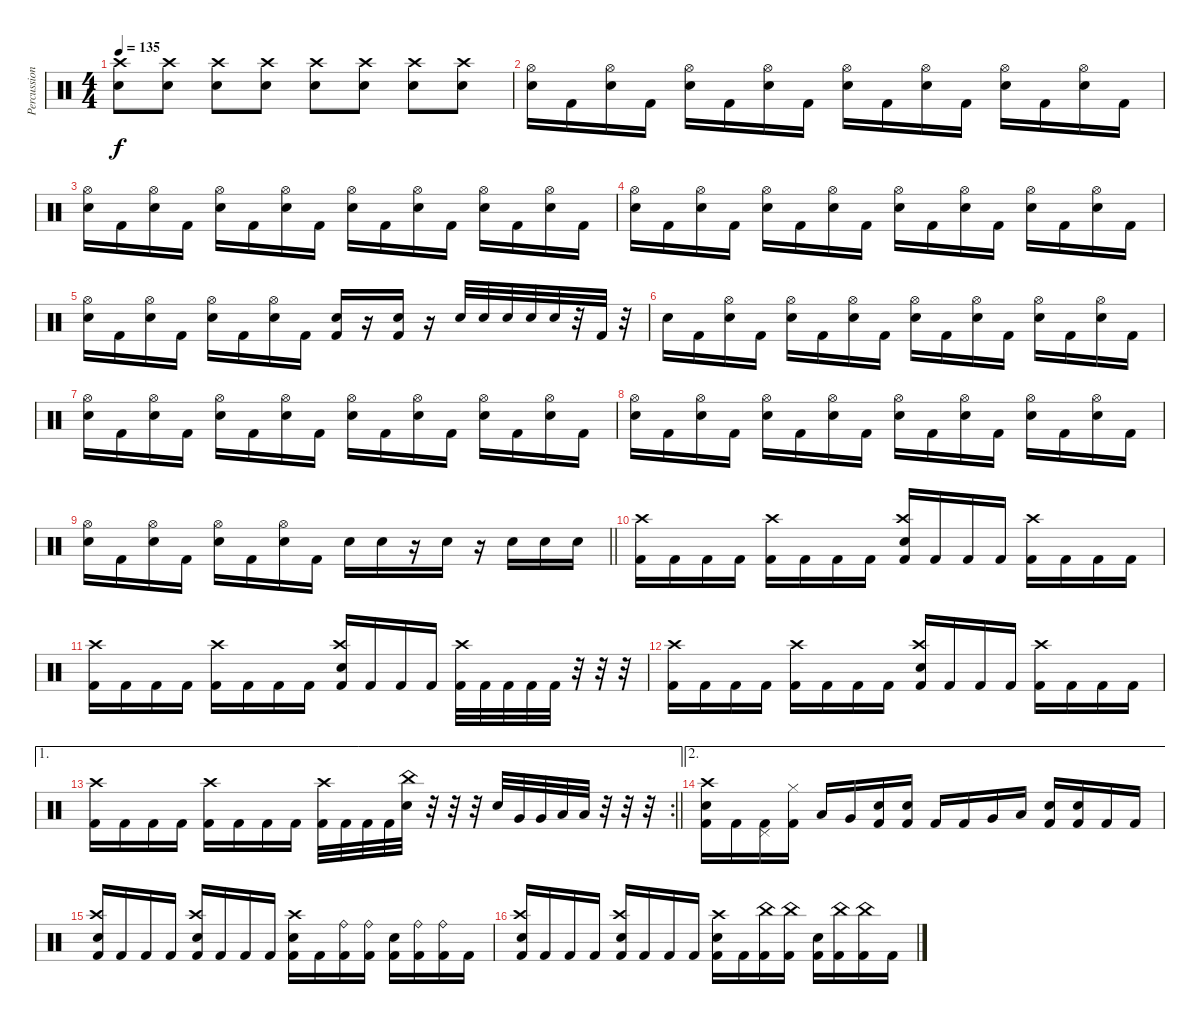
\track ("Percussion" "Percussion") {instrument percussion}
\staff {score}
\articulation defaults
\ts (4 4)
\tempo 135
\clef neutral
\ks c
("Electric Snare (hit)" "Crash high (hit)").8{dy f} ("Electric Snare (hit)" "Crash high (hit)").8 ("Electric Snare (hit)" "Crash high (hit)").8 ("Electric Snare (hit)" "Crash high (hit)").8 ("Electric Snare (hit)" "Crash high (hit)").8 ("Electric Snare (hit)" "Crash high (hit)").8 ("Electric Snare (hit)" "Crash high (hit)").8 ("Electric Snare (hit)" "Crash high (hit)").8 |
("Electric Snare (hit)" "Hi-Hat (open)").16 "Kick (hit) 2".16 ("Electric Snare (hit)" "Hi-Hat (open)").16 "Kick (hit) 2".16 ("Electric Snare (hit)" "Hi-Hat (open)").16 "Kick (hit) 2".16 ("Electric Snare (hit)" "Hi-Hat (open)").16 "Kick (hit) 2".16 ("Electric Snare (hit)" "Hi-Hat (open)").16 "Kick (hit) 2".16 ("Electric Snare (hit)" "Hi-Hat (open)").16 "Kick (hit) 2".16 ("Electric Snare (hit)" "Hi-Hat (open)").16 "Kick (hit) 2".16 ("Electric Snare (hit)" "Hi-Hat (open)").16 "Kick (hit) 2".16 |
("Electric Snare (hit)" "Hi-Hat (open)").16 "Kick (hit) 2".16 ("Electric Snare (hit)" "Hi-Hat (open)").16 "Kick (hit) 2".16 ("Electric Snare (hit)" "Hi-Hat (open)").16 "Kick (hit) 2".16 ("Electric Snare (hit)" "Hi-Hat (open)").16 "Kick (hit) 2".16 ("Electric Snare (hit)" "Hi-Hat (open)").16 "Kick (hit) 2".16 ("Electric Snare (hit)" "Hi-Hat (open)").16 "Kick (hit) 2".16 ("Electric Snare (hit)" "Hi-Hat (open)").16 "Kick (hit) 2".16 ("Electric Snare (hit)" "Hi-Hat (open)").16 "Kick (hit) 2".16 |
("Electric Snare (hit)" "Hi-Hat (open)").16 "Kick (hit) 2".16 ("Electric Snare (hit)" "Hi-Hat (open)").16 "Kick (hit) 2".16 ("Electric Snare (hit)" "Hi-Hat (open)").16 "Kick (hit) 2".16 ("Electric Snare (hit)" "Hi-Hat (open)").16 "Kick (hit) 2".16 ("Electric Snare (hit)" "Hi-Hat (open)").16 "Kick (hit) 2".16 ("Electric Snare (hit)" "Hi-Hat (open)").16 "Kick (hit) 2".16 ("Electric Snare (hit)" "Hi-Hat (open)").16 "Kick (hit) 2".16 ("Electric Snare (hit)" "Hi-Hat (open)").16 "Kick (hit) 2".16 |
("Electric Snare (hit)" "Hi-Hat (open)").16 "Kick (hit) 2".16 ("Electric Snare (hit)" "Hi-Hat (open)").16 "Kick (hit) 2".16 ("Electric Snare (hit)" "Hi-Hat (open)").16 "Kick (hit) 2".16 ("Electric Snare (hit)" "Hi-Hat (open)").16 "Kick (hit) 2".16 ("Electric Snare (hit)" "Kick (hit) 2").16 r.16 ("Electric Snare (hit)" "Kick (hit) 2").16 r.16 "Electric Snare (hit)".32 "Electric Snare (hit)".32 "Electric Snare (hit)".32 "Electric Snare (hit)".32 "Electric Snare (hit)".32 r.32 "Kick (hit) 2".32 r.32 |
"Electric Snare (hit)".16 "Kick (hit) 2".16 ("Electric Snare (hit)" "Hi-Hat (open)").16 "Kick (hit) 2".16 ("Electric Snare (hit)" "Hi-Hat (open)").16 "Kick (hit) 2".16 ("Electric Snare (hit)" "Hi-Hat (open)").16 "Kick (hit) 2".16 ("Electric Snare (hit)" "Hi-Hat (open)").16 "Kick (hit) 2".16 ("Electric Snare (hit)" "Hi-Hat (open)").16 "Kick (hit) 2".16 ("Electric Snare (hit)" "Hi-Hat (open)").16 "Kick (hit) 2".16 ("Electric Snare (hit)" "Hi-Hat (open)").16 "Kick (hit) 2".16 |
("Electric Snare (hit)" "Hi-Hat (open)").16 "Kick (hit) 2".16 ("Electric Snare (hit)" "Hi-Hat (open)").16 "Kick (hit) 2".16 ("Electric Snare (hit)" "Hi-Hat (open)").16 "Kick (hit) 2".16 ("Electric Snare (hit)" "Hi-Hat (open)").16 "Kick (hit) 2".16 ("Electric Snare (hit)" "Hi-Hat (open)").16 "Kick (hit) 2".16 ("Electric Snare (hit)" "Hi-Hat (open)").16 "Kick (hit) 2".16 ("Electric Snare (hit)" "Hi-Hat (open)").16 "Kick (hit) 2".16 ("Electric Snare (hit)" "Hi-Hat (open)").16 "Kick (hit) 2".16 |
("Electric Snare (hit)" "Hi-Hat (open)").16 "Kick (hit) 2".16 ("Electric Snare (hit)" "Hi-Hat (open)").16 "Kick (hit) 2".16 ("Electric Snare (hit)" "Hi-Hat (open)").16 "Kick (hit) 2".16 ("Electric Snare (hit)" "Hi-Hat (open)").16 "Kick (hit) 2".16 ("Electric Snare (hit)" "Hi-Hat (open)").16 "Kick (hit) 2".16 ("Electric Snare (hit)" "Hi-Hat (open)").16 "Kick (hit) 2".16 ("Electric Snare (hit)" "Hi-Hat (open)").16 "Kick (hit) 2".16 ("Electric Snare (hit)" "Hi-Hat (open)").16 "Kick (hit) 2".16 |
\barLineRight lightlight
("Electric Snare (hit)" "Hi-Hat (open)").16 "Kick (hit) 2".16 ("Electric Snare (hit)" "Hi-Hat (open)").16 "Kick (hit) 2".16 ("Electric Snare (hit)" "Hi-Hat (open)").16 "Kick (hit) 2".16 ("Electric Snare (hit)" "Hi-Hat (open)").16 "Kick (hit) 2".16 "Electric Snare (hit)".16 "Electric Snare (hit)".16 r.16 "Electric Snare (hit)".16 r.16 "Electric Snare (hit)".16 "Electric Snare (hit)".16 "Electric Snare (hit)".16 |
("Kick (hit) 2" "Crash high (hit)").16 "Kick (hit) 2".16 "Kick (hit) 2".16 "Kick (hit) 2".16 ("Kick (hit) 2" "Crash high (hit)").16 "Kick (hit) 2".16 "Kick (hit) 2".16 "Kick (hit) 2".16 ("Kick (hit) 2" "Crash high (hit)" "Electric Snare (hit)").16 "Kick (hit) 2".16 "Kick (hit) 2".16 "Kick (hit) 2".16 ("Kick (hit) 2" "Crash high (hit)").16 "Kick (hit) 2".16 "Kick (hit) 2".16 "Kick (hit) 2".16 |
("Kick (hit) 2" "Crash high (hit)").16 "Kick (hit) 2".16 "Kick (hit) 2".16 "Kick (hit) 2".16 ("Kick (hit) 2" "Crash high (hit)").16 "Kick (hit) 2".16 "Kick (hit) 2".16 "Kick (hit) 2".16 ("Kick (hit) 2" "Crash high (hit)" "Electric Snare (hit)").16 "Kick (hit) 2".16 "Kick (hit) 2".16 "Kick (hit) 2".16 ("Kick (hit) 2" "Crash high (hit)").32 "Kick (hit) 2".32 "Kick (hit) 2".32 "Kick (hit) 2".32 "Kick (hit) 2".32 r.32 r.32 r.32 |
("Kick (hit) 2" "Crash high (hit)").16 "Kick (hit) 2".16 "Kick (hit) 2".16 "Kick (hit) 2".16 ("Kick (hit) 2" "Crash high (hit)").16 "Kick (hit) 2".16 "Kick (hit) 2".16 "Kick (hit) 2".16 ("Kick (hit) 2" "Crash high (hit)" "Electric Snare (hit)").16 "Kick (hit) 2".16 "Kick (hit) 2".16 "Kick (hit) 2".16 ("Kick (hit) 2" "Crash high (hit)").16 "Kick (hit) 2".16 "Kick (hit) 2".16 "Kick (hit) 2".16 |
\ae 1
\rc 2
\barLineRight lightlight
("Kick (hit) 2" "Crash high (hit)").16 "Kick (hit) 2".16 "Kick (hit) 2".16 "Kick (hit) 2".16 ("Kick (hit) 2" "Crash high (hit)").16 "Kick (hit) 2".16 "Kick (hit) 2".16 "Kick (hit) 2".16 ("Kick (hit) 2" "Crash high (hit)").32 "Kick (hit) 2".32 "Kick (hit) 2".32 "Kick (hit) 2".32 ("Electric Snare (hit)" "China (hit)").32 r.32 r.32 r.32 "Electric Snare (hit)".32 "Very Low Tom (hit)".32 "Very Low Tom (hit)".32 "Low Floor Tom (hit)".32 "Low Floor Tom (hit)".32 r.32 r.32 r.32 |
\ae 2
("Kick (hit) 2" "Electric Snare (hit)" "Crash high (hit)").16 "Kick (hit) 2".16 ("Kick (hit) 2" "Pedal Hi-Hat (hit)").16 ("Kick (hit) 2" "Hi-Hat (closed)").16 "Low Tom (hit)".16 "Very Low Tom (hit)".16 ("Kick (hit) 2" "Electric Snare (hit)").16 ("Kick (hit) 2" "Electric Snare (hit)").16 "Kick (hit) 2".16 "Kick (hit) 2".16 "Very Low Tom (hit)".16 "Low Floor Tom (hit)".16 ("Kick (hit) 2" "Electric Snare (hit)").16 ("Kick (hit) 2" "Electric Snare (hit)").16 "Kick (hit) 2".16 "Kick (hit) 2".16 |
("Kick (hit) 2" "Electric Snare (hit)" "Crash high (hit)").16 "Kick (hit) 2".16 "Kick (hit) 2".16 "Kick (hit) 2".16 ("Kick (hit) 2" "Electric Snare (hit)" "Crash high (hit)").16 "Kick (hit) 2".16 "Kick (hit) 2".16 "Kick (hit) 2".16 ("Kick (hit) 2" "Electric Snare (hit)" "Crash high (hit)").16 "Kick (hit) 2".16 ("Kick (hit) 2" "Ride (bell)").16 ("Kick (hit) 2" "Ride (bell)").16 ("Kick (hit) 2" "Electric Snare (hit)").16 ("Kick (hit) 2" "Ride (bell)").16 ("Kick (hit) 2" "Ride (bell)").16 "Kick (hit) 2".16 |
("Kick (hit) 2" "Electric Snare (hit)" "Crash high (hit)").16 "Kick (hit) 2".16 "Kick (hit) 2".16 "Kick (hit) 2".16 ("Kick (hit) 2" "Electric Snare (hit)" "Crash high (hit)").16 "Kick (hit) 2".16 "Kick (hit) 2".16 "Kick (hit) 2".16 ("Kick (hit) 2" "Electric Snare (hit)" "Crash high (hit)").16 "Kick (hit) 2".16 ("Kick (hit) 2" "China (hit)").16 ("Kick (hit) 2" "China (hit)").16 ("Kick (hit) 2" "Electric Snare (hit)").16 ("Kick (hit) 2" "China (hit)").16 ("Kick (hit) 2" "China (hit)").16 "Kick (hit) 2".16
